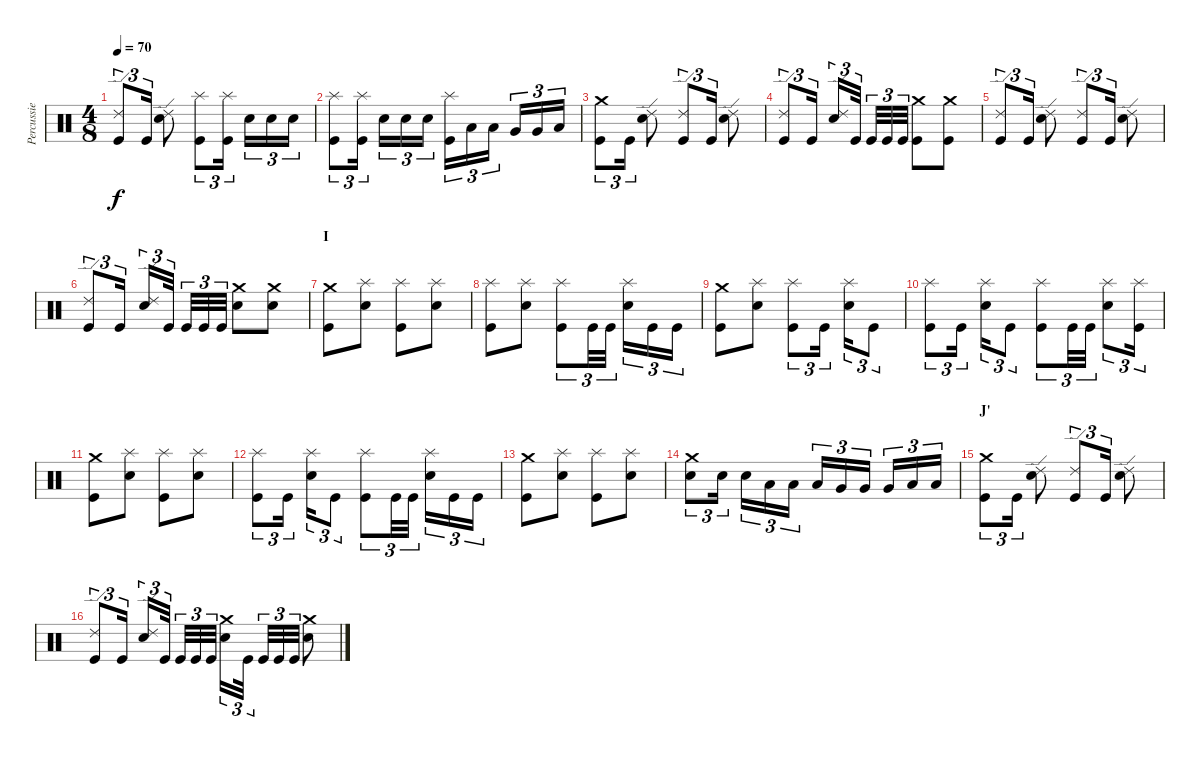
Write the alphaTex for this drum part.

\track ("Percussie" "Percussie") {instrument percussion}
\staff {score}
\articulation defaults
\ts (4 8)
\tempo 70
\clef neutral
\ks c
("Ride (edge) 2" "Kick (hit)").8{tu (3 2) dy f} "Kick (hit)".16{tu (3 2)} ("Ride (edge) 2" "Electric Snare (hit)").8 ("Splash (hit)" "Kick (hit)").8{tu (3 2)} ("Splash (hit)" "Kick (hit)").16{tu (3 2)} "Electric Snare (hit)".16{tu (3 2)} "Electric Snare (hit)".16{tu (3 2)} "Electric Snare (hit)".16{tu (3 2)} |
("Splash (hit)" "Kick (hit)").8{tu (3 2)} ("Splash (hit)" "Kick (hit)").16{tu (3 2)} "Electric Snare (hit)".16{tu (3 2)} "Electric Snare (hit)".16{tu (3 2)} "Electric Snare (hit)".16{tu (3 2)} ("Splash (hit)" "Kick (hit)").16{tu (3 2)} "Low Tom (hit)".16{tu (3 2)} "Low Tom (hit)".16{tu (3 2)} "Very Low Tom (hit)".16{tu (3 2)} "Very Low Tom (hit)".16{tu (3 2)} "Low Floor Tom (hit)".16{tu (3 2)} |
("Crash medium (hit)" "Kick (hit)").8{tu (3 2)} "Kick (hit)".16{tu (3 2)} ("Ride (edge) 2" "Electric Snare (hit)").8 ("Ride (edge) 2" "Kick (hit)").8{tu (3 2)} "Kick (hit)".16{tu (3 2)} ("Ride (edge) 2" "Electric Snare (hit)").8 |
("Ride (edge) 2" "Kick (hit)").8{tu (3 2)} "Kick (hit)".16{tu (3 2)} ("Ride (edge) 2" "Electric Snare (hit)").16{tu (3 2)} "Kick (hit)".32{tu (3 2)} "Kick (hit)".32{tu (3 2)} "Kick (hit)".32{tu (3 2)} "Kick (hit)".32{tu (3 2)} ("Crash medium (hit)" "Kick (hit)").8 ("Crash medium (hit)" "Kick (hit)").8 |
("Ride (edge) 2" "Kick (hit)").8{tu (3 2)} "Kick (hit)".16{tu (3 2)} ("Ride (edge) 2" "Electric Snare (hit)").8 ("Ride (edge) 2" "Kick (hit)").8{tu (3 2)} "Kick (hit)".16{tu (3 2)} ("Ride (edge) 2" "Electric Snare (hit)").8 |
("Ride (edge) 2" "Kick (hit)").8{tu (3 2)} "Kick (hit)".16{tu (3 2)} ("Ride (edge) 2" "Electric Snare (hit)").16{tu (3 2)} "Kick (hit)".32{tu (3 2)} "Kick (hit)".32{tu (3 2)} "Kick (hit)".32{tu (3 2)} "Kick (hit)".32{tu (3 2)} ("Crash medium (hit)" "Electric Snare (hit)").8 ("Crash medium (hit)" "Electric Snare (hit)").8 |
\section ("" "I")
("Crash medium (hit)" "Kick (hit)").8 ("Splash (hit)" "Electric Snare (hit)").8 ("Splash (hit)" "Kick (hit)").8 ("Splash (hit)" "Electric Snare (hit)").8 |
("Splash (hit)" "Kick (hit)").8 ("Splash (hit)" "Electric Snare (hit)").8 ("Splash (hit)" "Kick (hit)").8{tu (3 2)} "Kick (hit)".32{tu (3 2)} "Kick (hit)".32{tu (3 2)} ("Splash (hit)" "Electric Snare (hit)").16{tu (3 2)} "Kick (hit)".16{tu (3 2)} "Kick (hit)".16{tu (3 2)} |
("Crash medium (hit)" "Kick (hit)").8 ("Splash (hit)" "Electric Snare (hit)").8 ("Splash (hit)" "Kick (hit)").8{tu (3 2)} "Kick (hit)".16{tu (3 2)} ("Splash (hit)" "Electric Snare (hit)").16{tu (3 2)} "Kick (hit)".8{tu (3 2)} |
("Splash (hit)" "Kick (hit)").8{tu (3 2)} "Kick (hit)".16{tu (3 2)} ("Splash (hit)" "Electric Snare (hit)").16{tu (3 2)} "Kick (hit)".8{tu (3 2)} ("Splash (hit)" "Kick (hit)").8{tu (3 2)} "Kick (hit)".32{tu (3 2)} "Kick (hit)".32{tu (3 2)} ("Splash (hit)" "Electric Snare (hit)").8{tu (3 2)} ("Splash (hit)" "Kick (hit)").16{tu (3 2)} |
("Crash medium (hit)" "Kick (hit)").8 ("Splash (hit)" "Electric Snare (hit)").8 ("Splash (hit)" "Kick (hit)").8 ("Splash (hit)" "Electric Snare (hit)").8 |
("Splash (hit)" "Kick (hit)").8{tu (3 2)} "Kick (hit)".16{tu (3 2)} ("Splash (hit)" "Electric Snare (hit)").16{tu (3 2)} "Kick (hit)".8{tu (3 2)} ("Splash (hit)" "Kick (hit)").8{tu (3 2)} "Kick (hit)".32{tu (3 2)} "Kick (hit)".32{tu (3 2)} ("Splash (hit)" "Electric Snare (hit)").16{tu (3 2)} "Kick (hit)".16{tu (3 2)} "Kick (hit)".16{tu (3 2)} |
("Crash medium (hit)" "Kick (hit)").8 ("Splash (hit)" "Electric Snare (hit)").8 ("Splash (hit)" "Kick (hit)").8 ("Splash (hit)" "Electric Snare (hit)").8 |
("Crash medium (hit)" "Electric Snare (hit)").8{tu (3 2)} "Electric Snare (hit)".16{tu (3 2)} "Electric Snare (hit)".16{tu (3 2)} "Low Tom (hit)".16{tu (3 2)} "Low Tom (hit)".16{tu (3 2)} "Low Tom (hit)".16{tu (3 2)} "Very Low Tom (hit)".16{tu (3 2)} "Very Low Tom (hit)".16{tu (3 2)} "Very Low Tom (hit)".16{tu (3 2)} "Low Floor Tom (hit)".16{tu (3 2)} "Low Floor Tom (hit)".16{tu (3 2)} |
\section ("" "J'")
("Crash medium (hit)" "Kick (hit)").8{tu (3 2)} "Kick (hit)".16{tu (3 2)} ("Ride (edge) 2" "Electric Snare (hit)").8 ("Ride (edge) 2" "Kick (hit)").8{tu (3 2)} "Kick (hit)".16{tu (3 2)} ("Ride (edge) 2" "Electric Snare (hit)").8 |
("Ride (edge) 2" "Kick (hit)").8{tu (3 2)} "Kick (hit)".16{tu (3 2)} ("Ride (edge) 2" "Electric Snare (hit)").16{tu (3 2)} "Kick (hit)".32{tu (3 2)} "Kick (hit)".32{tu (3 2)} "Kick (hit)".32{tu (3 2)} "Kick (hit)".32{tu (3 2)} ("Crash medium (hit)" "Electric Snare (hit)").16{tu (3 2)} "Kick (hit)".32{tu (3 2)} "Kick (hit)".32{tu (3 2)} "Kick (hit)".32{tu (3 2)} "Kick (hit)".32{tu (3 2)} ("Crash medium (hit)" "Electric Snare (hit)").8
